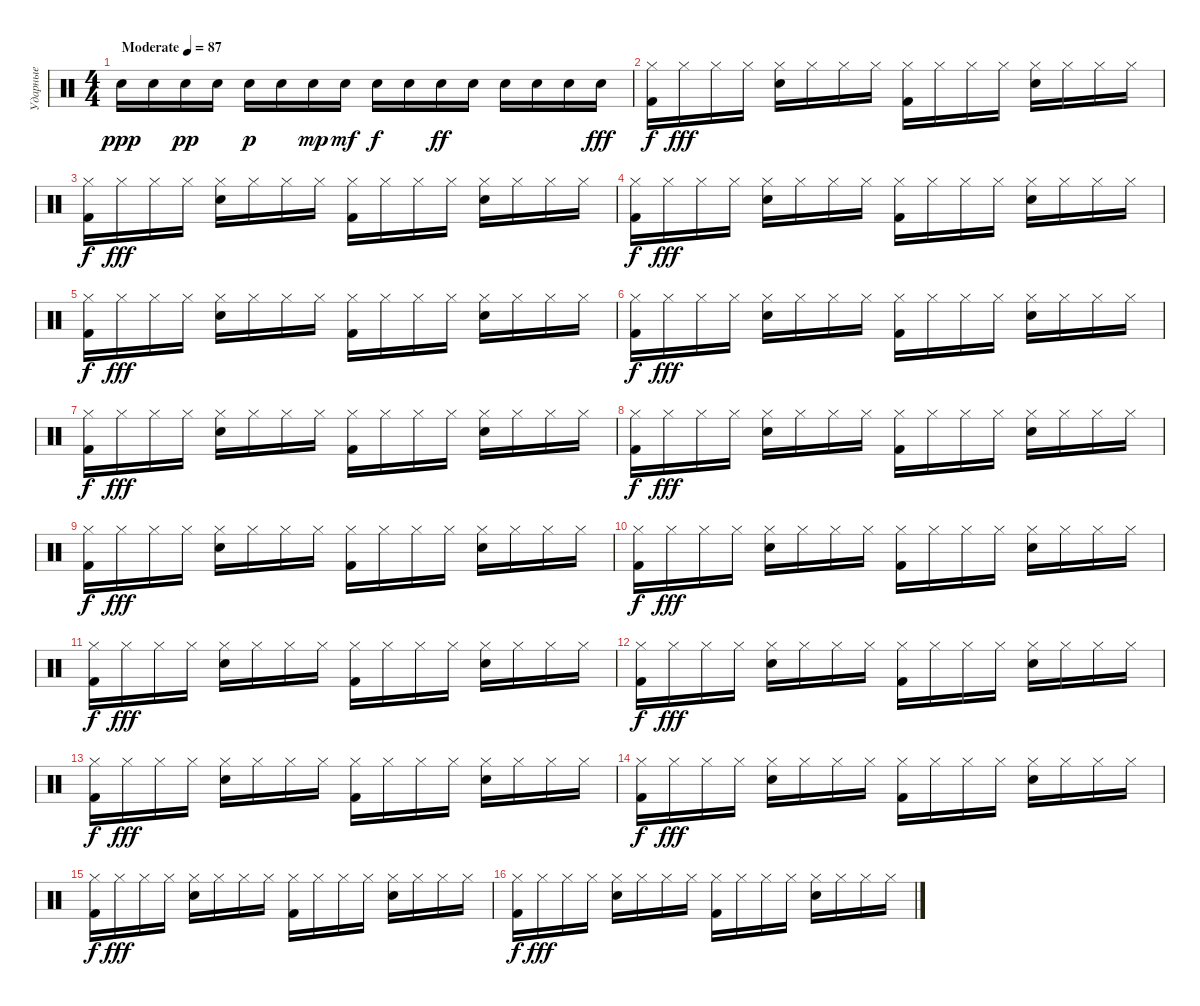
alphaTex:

\track ("Ударные" "Ударные") {instrument percussion}
\staff {score}
\articulation defaults
\ts (4 4)
\tempo (87 "Moderate")
\clef neutral
\ks c "Electric Snare (hit)".16{dy ppp} "Electric Snare (hit)".16 "Electric Snare (hit)".16{dy pp} "Electric Snare (hit)".16 "Electric Snare (hit)".16{dy p} "Electric Snare (hit)".16 "Electric Snare (hit)".16{dy mp} "Electric Snare (hit)".16{dy mf} "Electric Snare (hit)".16{dy f} "Electric Snare (hit)".16 "Electric Snare (hit)".16{dy ff} "Electric Snare (hit)".16 "Electric Snare (hit)".16 "Electric Snare (hit)".16 "Electric Snare (hit)".16 "Electric Snare (hit)".16{dy fff}
|
("Hi-Hat (closed)" "Kick (hit) 2").16{dy f} "Hi-Hat (closed)".16{dy fff} "Hi-Hat (closed)".16 "Hi-Hat (closed)".16 ("Hi-Hat (closed)" "Snare (hit) 2").16 "Hi-Hat (closed)".16 "Hi-Hat (closed)".16 "Hi-Hat (closed)".16 ("Hi-Hat (closed)" "Kick (hit) 2").16 "Hi-Hat (closed)".16 "Hi-Hat (closed)".16 "Hi-Hat (closed)".16 ("Hi-Hat (closed)" "Snare (hit) 2").16 "Hi-Hat (closed)".16 "Hi-Hat (closed)".16 "Hi-Hat (closed)".16 |
("Hi-Hat (closed)" "Kick (hit) 2").16{dy f} "Hi-Hat (closed)".16{dy fff} "Hi-Hat (closed)".16 "Hi-Hat (closed)".16 ("Hi-Hat (closed)" "Snare (hit) 2").16 "Hi-Hat (closed)".16 "Hi-Hat (closed)".16 "Hi-Hat (closed)".16 ("Hi-Hat (closed)" "Kick (hit) 2").16 "Hi-Hat (closed)".16 "Hi-Hat (closed)".16 "Hi-Hat (closed)".16 ("Hi-Hat (closed)" "Snare (hit) 2").16 "Hi-Hat (closed)".16 "Hi-Hat (closed)".16 "Hi-Hat (closed)".16 |
("Hi-Hat (closed)" "Kick (hit) 2").16{dy f} "Hi-Hat (closed)".16{dy fff} "Hi-Hat (closed)".16 "Hi-Hat (closed)".16 ("Hi-Hat (closed)" "Snare (hit) 2").16 "Hi-Hat (closed)".16 "Hi-Hat (closed)".16 "Hi-Hat (closed)".16 ("Hi-Hat (closed)" "Kick (hit) 2").16 "Hi-Hat (closed)".16 "Hi-Hat (closed)".16 "Hi-Hat (closed)".16 ("Hi-Hat (closed)" "Snare (hit) 2").16 "Hi-Hat (closed)".16 "Hi-Hat (closed)".16 "Hi-Hat (closed)".16 |
("Hi-Hat (closed)" "Kick (hit) 2").16{dy f} "Hi-Hat (closed)".16{dy fff} "Hi-Hat (closed)".16 "Hi-Hat (closed)".16 ("Hi-Hat (closed)" "Snare (hit) 2").16 "Hi-Hat (closed)".16 "Hi-Hat (closed)".16 "Hi-Hat (closed)".16 ("Hi-Hat (closed)" "Kick (hit) 2").16 "Hi-Hat (closed)".16 "Hi-Hat (closed)".16 "Hi-Hat (closed)".16 ("Hi-Hat (closed)" "Snare (hit) 2").16 "Hi-Hat (closed)".16 "Hi-Hat (closed)".16 "Hi-Hat (closed)".16 |
("Hi-Hat (closed)" "Kick (hit) 2").16{dy f} "Hi-Hat (closed)".16{dy fff} "Hi-Hat (closed)".16 "Hi-Hat (closed)".16 ("Hi-Hat (closed)" "Snare (hit) 2").16 "Hi-Hat (closed)".16 "Hi-Hat (closed)".16 "Hi-Hat (closed)".16 ("Hi-Hat (closed)" "Kick (hit) 2").16 "Hi-Hat (closed)".16 "Hi-Hat (closed)".16 "Hi-Hat (closed)".16 ("Hi-Hat (closed)" "Snare (hit) 2").16 "Hi-Hat (closed)".16 "Hi-Hat (closed)".16 "Hi-Hat (closed)".16 |
("Hi-Hat (closed)" "Kick (hit) 2").16{dy f} "Hi-Hat (closed)".16{dy fff} "Hi-Hat (closed)".16 "Hi-Hat (closed)".16 ("Hi-Hat (closed)" "Snare (hit) 2").16 "Hi-Hat (closed)".16 "Hi-Hat (closed)".16 "Hi-Hat (closed)".16 ("Hi-Hat (closed)" "Kick (hit) 2").16 "Hi-Hat (closed)".16 "Hi-Hat (closed)".16 "Hi-Hat (closed)".16 ("Hi-Hat (closed)" "Snare (hit) 2").16 "Hi-Hat (closed)".16 "Hi-Hat (closed)".16 "Hi-Hat (closed)".16 |
("Hi-Hat (closed)" "Kick (hit) 2").16{dy f} "Hi-Hat (closed)".16{dy fff} "Hi-Hat (closed)".16 "Hi-Hat (closed)".16 ("Hi-Hat (closed)" "Snare (hit) 2").16 "Hi-Hat (closed)".16 "Hi-Hat (closed)".16 "Hi-Hat (closed)".16 ("Hi-Hat (closed)" "Kick (hit) 2").16 "Hi-Hat (closed)".16 "Hi-Hat (closed)".16 "Hi-Hat (closed)".16 ("Hi-Hat (closed)" "Snare (hit) 2").16 "Hi-Hat (closed)".16 "Hi-Hat (closed)".16 "Hi-Hat (closed)".16 |
("Hi-Hat (closed)" "Kick (hit) 2").16{dy f} "Hi-Hat (closed)".16{dy fff} "Hi-Hat (closed)".16 "Hi-Hat (closed)".16 ("Hi-Hat (closed)" "Snare (hit) 2").16 "Hi-Hat (closed)".16 "Hi-Hat (closed)".16 "Hi-Hat (closed)".16 ("Hi-Hat (closed)" "Kick (hit) 2").16 "Hi-Hat (closed)".16 "Hi-Hat (closed)".16 "Hi-Hat (closed)".16 ("Hi-Hat (closed)" "Snare (hit) 2").16 "Hi-Hat (closed)".16 "Hi-Hat (closed)".16 "Hi-Hat (closed)".16 |
("Hi-Hat (closed)" "Kick (hit) 2").16{dy f} "Hi-Hat (closed)".16{dy fff} "Hi-Hat (closed)".16 "Hi-Hat (closed)".16 ("Hi-Hat (closed)" "Snare (hit) 2").16 "Hi-Hat (closed)".16 "Hi-Hat (closed)".16 "Hi-Hat (closed)".16 ("Hi-Hat (closed)" "Kick (hit) 2").16 "Hi-Hat (closed)".16 "Hi-Hat (closed)".16 "Hi-Hat (closed)".16 ("Hi-Hat (closed)" "Snare (hit) 2").16 "Hi-Hat (closed)".16 "Hi-Hat (closed)".16 "Hi-Hat (closed)".16 |
("Hi-Hat (closed)" "Kick (hit) 2").16{dy f} "Hi-Hat (closed)".16{dy fff} "Hi-Hat (closed)".16 "Hi-Hat (closed)".16 ("Hi-Hat (closed)" "Snare (hit) 2").16 "Hi-Hat (closed)".16 "Hi-Hat (closed)".16 "Hi-Hat (closed)".16 ("Hi-Hat (closed)" "Kick (hit) 2").16 "Hi-Hat (closed)".16 "Hi-Hat (closed)".16 "Hi-Hat (closed)".16 ("Hi-Hat (closed)" "Snare (hit) 2").16 "Hi-Hat (closed)".16 "Hi-Hat (closed)".16 "Hi-Hat (closed)".16 |
("Hi-Hat (closed)" "Kick (hit) 2").16{dy f} "Hi-Hat (closed)".16{dy fff} "Hi-Hat (closed)".16 "Hi-Hat (closed)".16 ("Hi-Hat (closed)" "Snare (hit) 2").16 "Hi-Hat (closed)".16 "Hi-Hat (closed)".16 "Hi-Hat (closed)".16 ("Hi-Hat (closed)" "Kick (hit) 2").16 "Hi-Hat (closed)".16 "Hi-Hat (closed)".16 "Hi-Hat (closed)".16 ("Hi-Hat (closed)" "Snare (hit) 2").16 "Hi-Hat (closed)".16 "Hi-Hat (closed)".16 "Hi-Hat (closed)".16 |
("Hi-Hat (closed)" "Kick (hit) 2").16{dy f} "Hi-Hat (closed)".16{dy fff} "Hi-Hat (closed)".16 "Hi-Hat (closed)".16 ("Hi-Hat (closed)" "Snare (hit) 2").16 "Hi-Hat (closed)".16 "Hi-Hat (closed)".16 "Hi-Hat (closed)".16 ("Hi-Hat (closed)" "Kick (hit) 2").16 "Hi-Hat (closed)".16 "Hi-Hat (closed)".16 "Hi-Hat (closed)".16 ("Hi-Hat (closed)" "Snare (hit) 2").16 "Hi-Hat (closed)".16 "Hi-Hat (closed)".16 "Hi-Hat (closed)".16 |
("Hi-Hat (closed)" "Kick (hit) 2").16{dy f} "Hi-Hat (closed)".16{dy fff} "Hi-Hat (closed)".16 "Hi-Hat (closed)".16 ("Hi-Hat (closed)" "Snare (hit) 2").16 "Hi-Hat (closed)".16 "Hi-Hat (closed)".16 "Hi-Hat (closed)".16 ("Hi-Hat (closed)" "Kick (hit) 2").16 "Hi-Hat (closed)".16 "Hi-Hat (closed)".16 "Hi-Hat (closed)".16 ("Hi-Hat (closed)" "Snare (hit) 2").16 "Hi-Hat (closed)".16 "Hi-Hat (closed)".16 "Hi-Hat (closed)".16 |
("Hi-Hat (closed)" "Kick (hit) 2").16{dy f} "Hi-Hat (closed)".16{dy fff} "Hi-Hat (closed)".16 "Hi-Hat (closed)".16 ("Hi-Hat (closed)" "Snare (hit) 2").16 "Hi-Hat (closed)".16 "Hi-Hat (closed)".16 "Hi-Hat (closed)".16 ("Hi-Hat (closed)" "Kick (hit) 2").16 "Hi-Hat (closed)".16 "Hi-Hat (closed)".16 "Hi-Hat (closed)".16 ("Hi-Hat (closed)" "Snare (hit) 2").16 "Hi-Hat (closed)".16 "Hi-Hat (closed)".16 "Hi-Hat (closed)".16 |
("Hi-Hat (closed)" "Kick (hit) 2").16{dy f} "Hi-Hat (closed)".16{dy fff} "Hi-Hat (closed)".16 "Hi-Hat (closed)".16 ("Hi-Hat (closed)" "Snare (hit) 2").16 "Hi-Hat (closed)".16 "Hi-Hat (closed)".16 "Hi-Hat (closed)".16 ("Hi-Hat (closed)" "Kick (hit) 2").16 "Hi-Hat (closed)".16 "Hi-Hat (closed)".16 "Hi-Hat (closed)".16 ("Hi-Hat (closed)" "Snare (hit) 2").16 "Hi-Hat (closed)".16 "Hi-Hat (closed)".16 "Hi-Hat (closed)".16
